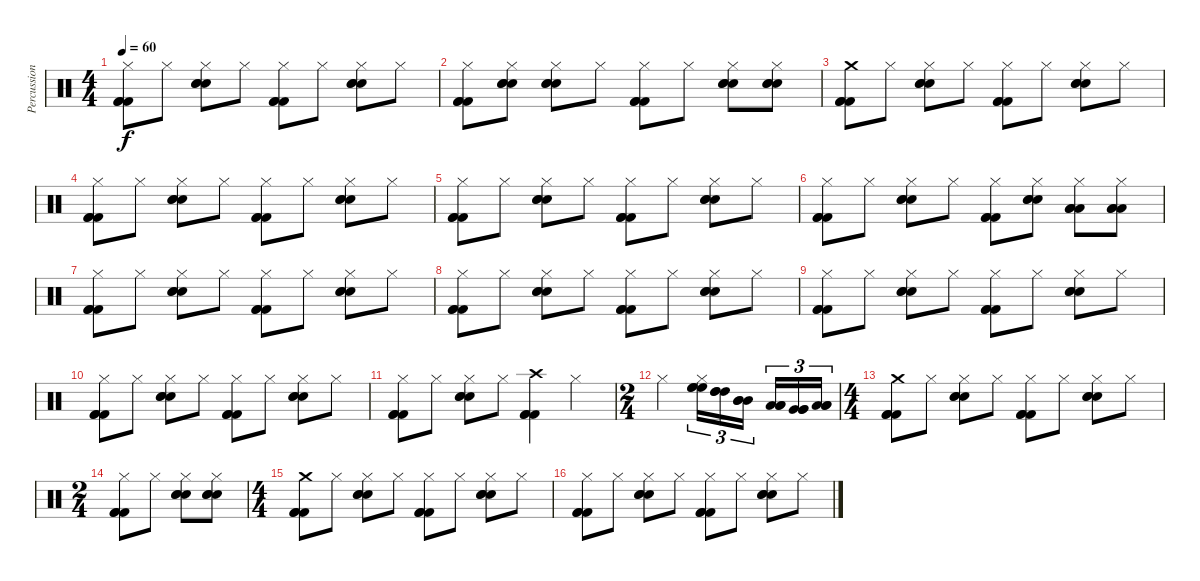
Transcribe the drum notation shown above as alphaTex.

\track ("Percussion (Nigel Olsson)" "Percussion") {instrument percussion}
\staff {score}
\articulation defaults
\ts (4 4)
\tempo 60
\clef neutral
\ks c
("Hi-Hat (closed)" "Kick (hit) 2" "Kick (hit) 2" "Kick (hit) 2").8{dy f} "Hi-Hat (closed)".8 ("Hi-Hat (closed)" "Electric Snare (hit)" "Electric Snare (hit)" "Electric Snare (hit)").8 "Hi-Hat (closed)".8 ("Hi-Hat (closed)" "Kick (hit) 2" "Kick (hit) 2" "Kick (hit) 2").8 "Hi-Hat (closed)".8 ("Hi-Hat (closed)" "Electric Snare (hit)" "Electric Snare (hit)" "Electric Snare (hit)").8 "Hi-Hat (closed)".8 |
("Hi-Hat (closed)" "Kick (hit) 2" "Kick (hit) 2" "Kick (hit) 2").8 ("Hi-Hat (closed)" "Electric Snare (hit)" "Electric Snare (hit)" "Electric Snare (hit)").8 ("Hi-Hat (closed)" "Electric Snare (hit)" "Electric Snare (hit)" "Electric Snare (hit)").8 "Hi-Hat (closed)".8 ("Hi-Hat (closed)" "Kick (hit) 2" "Kick (hit) 2" "Kick (hit) 2").8 "Hi-Hat (closed)".8 ("Hi-Hat (closed)" "Electric Snare (hit)" "Electric Snare (hit)" "Electric Snare (hit)").8 ("Hi-Hat (closed)" "Electric Snare (hit)" "Electric Snare (hit)" "Electric Snare (hit)").8 |
("Crash medium (hit)" "Kick (hit) 2" "Kick (hit) 2" "Kick (hit) 2").8 "Hi-Hat (closed)".8 ("Hi-Hat (closed)" "Electric Snare (hit)" "Electric Snare (hit)" "Electric Snare (hit)").8 "Hi-Hat (closed)".8 ("Hi-Hat (closed)" "Kick (hit) 2" "Kick (hit) 2" "Kick (hit) 2").8 "Hi-Hat (closed)".8 ("Hi-Hat (closed)" "Electric Snare (hit)" "Electric Snare (hit)" "Electric Snare (hit)").8 "Hi-Hat (closed)".8 |
("Hi-Hat (closed)" "Kick (hit) 2" "Kick (hit) 2" "Kick (hit) 2").8 "Hi-Hat (closed)".8 ("Hi-Hat (closed)" "Electric Snare (hit)" "Electric Snare (hit)" "Electric Snare (hit)").8 "Hi-Hat (closed)".8 ("Hi-Hat (closed)" "Kick (hit) 2" "Kick (hit) 2" "Kick (hit) 2").8 "Hi-Hat (closed)".8 ("Hi-Hat (closed)" "Electric Snare (hit)" "Electric Snare (hit)" "Electric Snare (hit)").8 "Hi-Hat (closed)".8 |
("Hi-Hat (closed)" "Kick (hit) 2" "Kick (hit) 2" "Kick (hit) 2").8 "Hi-Hat (closed)".8 ("Hi-Hat (closed)" "Electric Snare (hit)" "Electric Snare (hit)" "Electric Snare (hit)").8 "Hi-Hat (closed)".8 ("Hi-Hat (closed)" "Kick (hit) 2" "Kick (hit) 2" "Kick (hit) 2").8 "Hi-Hat (closed)".8 ("Hi-Hat (closed)" "Electric Snare (hit)" "Electric Snare (hit)" "Electric Snare (hit)").8 "Hi-Hat (closed)".8 |
("Hi-Hat (closed)" "Kick (hit) 2" "Kick (hit) 2" "Kick (hit) 2").8 "Hi-Hat (closed)".8 ("Hi-Hat (closed)" "Electric Snare (hit)" "Electric Snare (hit)" "Electric Snare (hit)").8 "Hi-Hat (closed)".8 ("Hi-Hat (closed)" "Kick (hit) 2" "Kick (hit) 2" "Kick (hit) 2").8 ("Hi-Hat (closed)" "Electric Snare (hit)" "Electric Snare (hit)" "Electric Snare (hit)").8 ("Hi-Hat (closed)" "Low Floor Tom (hit)" "Low Floor Tom (hit)" "Low Floor Tom (hit)").8 ("Hi-Hat (closed)" "Low Floor Tom (hit)" "Low Floor Tom (hit)" "Low Floor Tom (hit)").8 |
("Hi-Hat (closed)" "Kick (hit) 2" "Kick (hit) 2" "Kick (hit) 2").8 "Hi-Hat (closed)".8 ("Hi-Hat (closed)" "Electric Snare (hit)" "Electric Snare (hit)" "Electric Snare (hit)").8 "Hi-Hat (closed)".8 ("Hi-Hat (closed)" "Kick (hit) 2" "Kick (hit) 2" "Kick (hit) 2").8 "Hi-Hat (closed)".8 ("Hi-Hat (closed)" "Electric Snare (hit)" "Electric Snare (hit)" "Electric Snare (hit)").8 "Hi-Hat (closed)".8 |
("Hi-Hat (closed)" "Kick (hit) 2" "Kick (hit) 2" "Kick (hit) 2").8 "Hi-Hat (closed)".8 ("Hi-Hat (closed)" "Electric Snare (hit)" "Electric Snare (hit)" "Electric Snare (hit)").8 "Hi-Hat (closed)".8 ("Hi-Hat (closed)" "Kick (hit) 2" "Kick (hit) 2" "Kick (hit) 2").8 "Hi-Hat (closed)".8 ("Hi-Hat (closed)" "Electric Snare (hit)" "Electric Snare (hit)" "Electric Snare (hit)").8 "Hi-Hat (closed)".8 |
("Hi-Hat (closed)" "Kick (hit) 2" "Kick (hit) 2" "Kick (hit) 2").8 "Hi-Hat (closed)".8 ("Hi-Hat (closed)" "Electric Snare (hit)" "Electric Snare (hit)" "Electric Snare (hit)").8 "Hi-Hat (closed)".8 ("Hi-Hat (closed)" "Kick (hit) 2" "Kick (hit) 2" "Kick (hit) 2").8 "Hi-Hat (closed)".8 ("Hi-Hat (closed)" "Electric Snare (hit)" "Electric Snare (hit)" "Electric Snare (hit)").8 "Hi-Hat (closed)".8 |
("Hi-Hat (closed)" "Kick (hit) 2" "Kick (hit) 2" "Kick (hit) 2").8 "Hi-Hat (closed)".8 ("Hi-Hat (closed)" "Electric Snare (hit)" "Electric Snare (hit)" "Electric Snare (hit)").8 "Hi-Hat (closed)".8 ("Hi-Hat (closed)" "Kick (hit) 2" "Kick (hit) 2" "Kick (hit) 2").8 "Hi-Hat (closed)".8 ("Hi-Hat (closed)" "Electric Snare (hit)" "Electric Snare (hit)" "Electric Snare (hit)").8 "Hi-Hat (closed)".8 |
("Hi-Hat (closed)" "Kick (hit) 2" "Kick (hit) 2" "Kick (hit) 2").8 "Hi-Hat (closed)".8 ("Hi-Hat (closed)" "Electric Snare (hit)" "Electric Snare (hit)" "Electric Snare (hit)").8 "Hi-Hat (closed)".8 ("Crash high (hit)" "Kick (hit) 2" "Kick (hit) 2" "Kick (hit) 2").4 "Hi-Hat (closed)".4 |
\ts (2 4)
"Hi-Hat (closed)".4 ("Hi-Hat (closed)" "High Floor Tom (hit)" "High Floor Tom (hit)" "High Floor Tom (hit)").16{tu (3 2)} ("High Tom (hit)" "High Tom (hit)" "High Tom (hit)").16{tu (3 2)} ("Mid Tom (hit)" "Mid Tom (hit)" "Mid Tom (hit)").16{tu (3 2)} ("Low Tom (hit)" "Low Tom (hit)" "Low Tom (hit)").16{tu (3 2)} ("Very Low Tom (hit)" "Very Low Tom (hit)" "Very Low Tom (hit)").16{tu (3 2)} ("Low Floor Tom (hit)" "Low Floor Tom (hit)" "Low Floor Tom (hit)").16{tu (3 2)} |
\ts (4 4)
("Crash medium (hit)" "Kick (hit) 2" "Kick (hit) 2" "Kick (hit) 2").8 "Hi-Hat (closed)".8 ("Hi-Hat (closed)" "Electric Snare (hit)" "Electric Snare (hit)" "Electric Snare (hit)").8 "Hi-Hat (closed)".8 ("Hi-Hat (closed)" "Kick (hit) 2" "Kick (hit) 2" "Kick (hit) 2").8 "Hi-Hat (closed)".8 ("Hi-Hat (closed)" "Electric Snare (hit)" "Electric Snare (hit)" "Electric Snare (hit)").8 "Hi-Hat (closed)".8 |
\ts (2 4)
("Hi-Hat (closed)" "Kick (hit) 2" "Kick (hit) 2" "Kick (hit) 2").8 "Hi-Hat (closed)".8 ("Hi-Hat (closed)" "Electric Snare (hit)" "Electric Snare (hit)" "Electric Snare (hit)").8 ("Hi-Hat (closed)" "Electric Snare (hit)" "Electric Snare (hit)" "Electric Snare (hit)").8 |
\ts (4 4)
("Crash medium (hit)" "Kick (hit) 2" "Kick (hit) 2" "Kick (hit) 2").8 "Hi-Hat (closed)".8 ("Hi-Hat (closed)" "Electric Snare (hit)" "Electric Snare (hit)" "Electric Snare (hit)").8 "Hi-Hat (closed)".8 ("Hi-Hat (closed)" "Kick (hit) 2" "Kick (hit) 2" "Kick (hit) 2").8 "Hi-Hat (closed)".8 ("Hi-Hat (closed)" "Electric Snare (hit)" "Electric Snare (hit)" "Electric Snare (hit)").8 "Hi-Hat (closed)".8 |
("Hi-Hat (closed)" "Kick (hit) 2" "Kick (hit) 2" "Kick (hit) 2").8 "Hi-Hat (closed)".8 ("Hi-Hat (closed)" "Electric Snare (hit)" "Electric Snare (hit)" "Electric Snare (hit)").8 "Hi-Hat (closed)".8 ("Hi-Hat (closed)" "Kick (hit) 2" "Kick (hit) 2" "Kick (hit) 2").8 "Hi-Hat (closed)".8 ("Hi-Hat (closed)" "Electric Snare (hit)" "Electric Snare (hit)" "Electric Snare (hit)").8 "Hi-Hat (closed)".8
